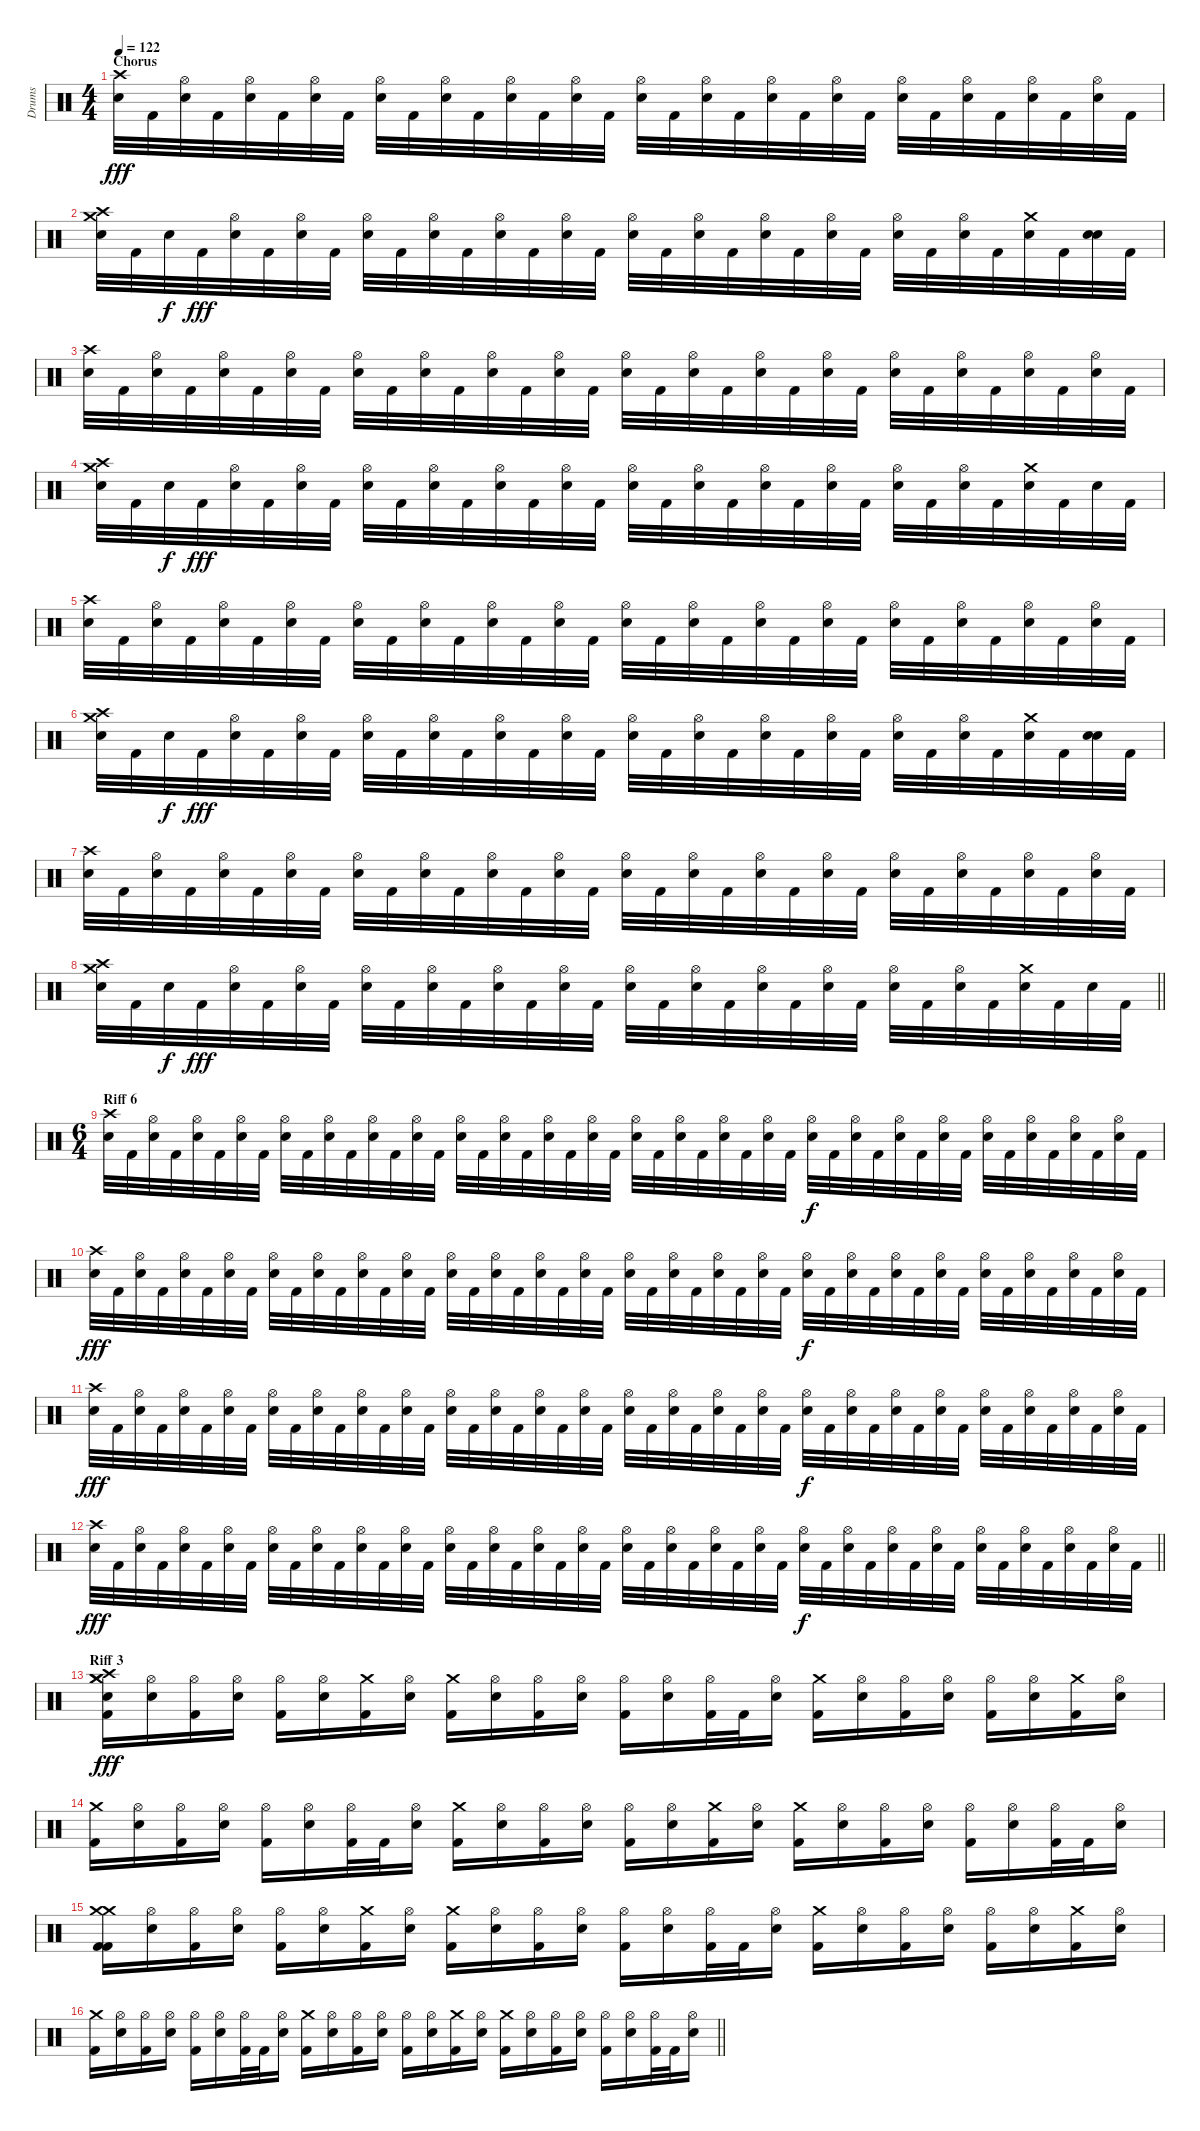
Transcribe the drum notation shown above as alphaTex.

\track ("Drums" "Drums") {instrument percussion}
\staff {score}
\articulation defaults
\ts (4 4)
\section ("" "Chorus")
\tempo 122
\clef neutral
\ks c
("Snare (hit) 2" "Crash high (hit)").32{dy fff} "Kick (hit) 2".32 ("Snare (hit) 2" "Hi-Hat (open)").32 "Kick (hit) 2".32 ("Hi-Hat (open)" "Snare (hit) 2").32 "Kick (hit) 2".32 ("Snare (hit) 2" "Hi-Hat (open)").32 "Kick (hit) 2".32 ("Hi-Hat (open)" "Snare (hit) 2").32 "Kick (hit) 2".32 ("Snare (hit) 2" "Hi-Hat (open)").32 "Kick (hit) 2".32 ("Snare (hit) 2" "Hi-Hat (open)").32 "Kick (hit) 2".32 ("Hi-Hat (open)" "Snare (hit) 2").32 "Kick (hit) 2".32 ("Snare (hit) 2" "Hi-Hat (open)").32 "Kick (hit) 2".32 ("Hi-Hat (open)" "Snare (hit) 2").32 "Kick (hit) 2".32 ("Snare (hit) 2" "Hi-Hat (open)").32 "Kick (hit) 2".32 ("Snare (hit) 2" "Hi-Hat (open)").32 "Kick (hit) 2".32 ("Hi-Hat (open)" "Snare (hit) 2").32 "Kick (hit) 2".32 ("Snare (hit) 2" "Hi-Hat (open)").32 "Kick (hit) 2".32 ("Hi-Hat (open)" "Snare (hit) 2").32 "Kick (hit) 2".32 ("Snare (hit) 2" "Hi-Hat (open)").32 "Kick (hit) 2".32 |
("Snare (hit) 2" "Crash high (hit)" "Crash medium (hit)").32 "Kick (hit) 2".32 "Snare (hit) 2".32{dy f} "Kick (hit) 2".32{dy fff} ("Snare (hit) 2" "Hi-Hat (open)").32 "Kick (hit) 2".32 ("Hi-Hat (open)" "Snare (hit) 2").32 "Kick (hit) 2".32 ("Snare (hit) 2" "Hi-Hat (open)").32 "Kick (hit) 2".32 ("Snare (hit) 2" "Hi-Hat (open)").32 "Kick (hit) 2".32 ("Hi-Hat (open)" "Snare (hit) 2").32 "Kick (hit) 2".32 ("Snare (hit) 2" "Hi-Hat (open)").32 "Kick (hit) 2".32 ("Hi-Hat (open)" "Snare (hit) 2").32 "Kick (hit) 2".32 ("Snare (hit) 2" "Hi-Hat (open)").32 "Kick (hit) 2".32 ("Snare (hit) 2" "Hi-Hat (open)").32 "Kick (hit) 2".32 ("Hi-Hat (open)" "Snare (hit) 2").32 "Kick (hit) 2".32 ("Snare (hit) 2" "Hi-Hat (open)").32 "Kick (hit) 2".32 ("Hi-Hat (open)" "Snare (hit) 2").32 "Kick (hit) 2".32 ("Snare (hit) 2" "Crash medium (hit)").32 "Kick (hit) 2".32 ("Snare (hit) 2" "Snare (hit) 2").32 "Kick (hit) 2".32 |
("Snare (hit) 2" "Crash high (hit)").32 "Kick (hit) 2".32 ("Snare (hit) 2" "Hi-Hat (open)").32 "Kick (hit) 2".32 ("Hi-Hat (open)" "Snare (hit) 2").32 "Kick (hit) 2".32 ("Snare (hit) 2" "Hi-Hat (open)").32 "Kick (hit) 2".32 ("Hi-Hat (open)" "Snare (hit) 2").32 "Kick (hit) 2".32 ("Snare (hit) 2" "Hi-Hat (open)").32 "Kick (hit) 2".32 ("Snare (hit) 2" "Hi-Hat (open)").32 "Kick (hit) 2".32 ("Hi-Hat (open)" "Snare (hit) 2").32 "Kick (hit) 2".32 ("Snare (hit) 2" "Hi-Hat (open)").32 "Kick (hit) 2".32 ("Hi-Hat (open)" "Snare (hit) 2").32 "Kick (hit) 2".32 ("Snare (hit) 2" "Hi-Hat (open)").32 "Kick (hit) 2".32 ("Snare (hit) 2" "Hi-Hat (open)").32 "Kick (hit) 2".32 ("Hi-Hat (open)" "Snare (hit) 2").32 "Kick (hit) 2".32 ("Snare (hit) 2" "Hi-Hat (open)").32 "Kick (hit) 2".32 ("Hi-Hat (open)" "Snare (hit) 2").32 "Kick (hit) 2".32 ("Snare (hit) 2" "Hi-Hat (open)").32 "Kick (hit) 2".32 |
("Snare (hit) 2" "Crash high (hit)" "Crash medium (hit)").32 "Kick (hit) 2".32 "Snare (hit) 2".32{dy f} "Kick (hit) 2".32{dy fff} ("Snare (hit) 2" "Hi-Hat (open)").32 "Kick (hit) 2".32 ("Hi-Hat (open)" "Snare (hit) 2").32 "Kick (hit) 2".32 ("Snare (hit) 2" "Hi-Hat (open)").32 "Kick (hit) 2".32 ("Snare (hit) 2" "Hi-Hat (open)").32 "Kick (hit) 2".32 ("Hi-Hat (open)" "Snare (hit) 2").32 "Kick (hit) 2".32 ("Snare (hit) 2" "Hi-Hat (open)").32 "Kick (hit) 2".32 ("Hi-Hat (open)" "Snare (hit) 2").32 "Kick (hit) 2".32 ("Snare (hit) 2" "Hi-Hat (open)").32 "Kick (hit) 2".32 ("Snare (hit) 2" "Hi-Hat (open)").32 "Kick (hit) 2".32 ("Hi-Hat (open)" "Snare (hit) 2").32 "Kick (hit) 2".32 ("Snare (hit) 2" "Hi-Hat (open)").32 "Kick (hit) 2".32 ("Hi-Hat (open)" "Snare (hit) 2").32 "Kick (hit) 2".32 ("Snare (hit) 2" "Crash medium (hit)").32 "Kick (hit) 2".32 "Snare (hit) 2".32 "Kick (hit) 2".32 |
("Snare (hit) 2" "Crash high (hit)").32 "Kick (hit) 2".32 ("Snare (hit) 2" "Hi-Hat (open)").32 "Kick (hit) 2".32 ("Hi-Hat (open)" "Snare (hit) 2").32 "Kick (hit) 2".32 ("Snare (hit) 2" "Hi-Hat (open)").32 "Kick (hit) 2".32 ("Hi-Hat (open)" "Snare (hit) 2").32 "Kick (hit) 2".32 ("Snare (hit) 2" "Hi-Hat (open)").32 "Kick (hit) 2".32 ("Snare (hit) 2" "Hi-Hat (open)").32 "Kick (hit) 2".32 ("Hi-Hat (open)" "Snare (hit) 2").32 "Kick (hit) 2".32 ("Snare (hit) 2" "Hi-Hat (open)").32 "Kick (hit) 2".32 ("Hi-Hat (open)" "Snare (hit) 2").32 "Kick (hit) 2".32 ("Snare (hit) 2" "Hi-Hat (open)").32 "Kick (hit) 2".32 ("Snare (hit) 2" "Hi-Hat (open)").32 "Kick (hit) 2".32 ("Hi-Hat (open)" "Snare (hit) 2").32 "Kick (hit) 2".32 ("Snare (hit) 2" "Hi-Hat (open)").32 "Kick (hit) 2".32 ("Hi-Hat (open)" "Snare (hit) 2").32 "Kick (hit) 2".32 ("Snare (hit) 2" "Hi-Hat (open)").32 "Kick (hit) 2".32 |
("Snare (hit) 2" "Crash high (hit)" "Crash medium (hit)").32 "Kick (hit) 2".32 "Snare (hit) 2".32{dy f} "Kick (hit) 2".32{dy fff} ("Snare (hit) 2" "Hi-Hat (open)").32 "Kick (hit) 2".32 ("Hi-Hat (open)" "Snare (hit) 2").32 "Kick (hit) 2".32 ("Snare (hit) 2" "Hi-Hat (open)").32 "Kick (hit) 2".32 ("Snare (hit) 2" "Hi-Hat (open)").32 "Kick (hit) 2".32 ("Hi-Hat (open)" "Snare (hit) 2").32 "Kick (hit) 2".32 ("Snare (hit) 2" "Hi-Hat (open)").32 "Kick (hit) 2".32 ("Hi-Hat (open)" "Snare (hit) 2").32 "Kick (hit) 2".32 ("Snare (hit) 2" "Hi-Hat (open)").32 "Kick (hit) 2".32 ("Snare (hit) 2" "Hi-Hat (open)").32 "Kick (hit) 2".32 ("Hi-Hat (open)" "Snare (hit) 2").32 "Kick (hit) 2".32 ("Snare (hit) 2" "Hi-Hat (open)").32 "Kick (hit) 2".32 ("Hi-Hat (open)" "Snare (hit) 2").32 "Kick (hit) 2".32 ("Snare (hit) 2" "Crash medium (hit)").32 "Kick (hit) 2".32 ("Snare (hit) 2" "Snare (hit) 2").32 "Kick (hit) 2".32 |
("Snare (hit) 2" "Crash high (hit)").32 "Kick (hit) 2".32 ("Snare (hit) 2" "Hi-Hat (open)").32 "Kick (hit) 2".32 ("Hi-Hat (open)" "Snare (hit) 2").32 "Kick (hit) 2".32 ("Snare (hit) 2" "Hi-Hat (open)").32 "Kick (hit) 2".32 ("Hi-Hat (open)" "Snare (hit) 2").32 "Kick (hit) 2".32 ("Snare (hit) 2" "Hi-Hat (open)").32 "Kick (hit) 2".32 ("Snare (hit) 2" "Hi-Hat (open)").32 "Kick (hit) 2".32 ("Hi-Hat (open)" "Snare (hit) 2").32 "Kick (hit) 2".32 ("Snare (hit) 2" "Hi-Hat (open)").32 "Kick (hit) 2".32 ("Hi-Hat (open)" "Snare (hit) 2").32 "Kick (hit) 2".32 ("Snare (hit) 2" "Hi-Hat (open)").32 "Kick (hit) 2".32 ("Snare (hit) 2" "Hi-Hat (open)").32 "Kick (hit) 2".32 ("Hi-Hat (open)" "Snare (hit) 2").32 "Kick (hit) 2".32 ("Snare (hit) 2" "Hi-Hat (open)").32 "Kick (hit) 2".32 ("Hi-Hat (open)" "Snare (hit) 2").32 "Kick (hit) 2".32 ("Snare (hit) 2" "Hi-Hat (open)").32 "Kick (hit) 2".32 |
\barLineRight lightlight
("Snare (hit) 2" "Crash high (hit)" "Crash medium (hit)").32 "Kick (hit) 2".32 "Snare (hit) 2".32{dy f} "Kick (hit) 2".32{dy fff} ("Snare (hit) 2" "Hi-Hat (open)").32 "Kick (hit) 2".32 ("Hi-Hat (open)" "Snare (hit) 2").32 "Kick (hit) 2".32 ("Snare (hit) 2" "Hi-Hat (open)").32 "Kick (hit) 2".32 ("Snare (hit) 2" "Hi-Hat (open)").32 "Kick (hit) 2".32 ("Hi-Hat (open)" "Snare (hit) 2").32 "Kick (hit) 2".32 ("Snare (hit) 2" "Hi-Hat (open)").32 "Kick (hit) 2".32 ("Hi-Hat (open)" "Snare (hit) 2").32 "Kick (hit) 2".32 ("Snare (hit) 2" "Hi-Hat (open)").32 "Kick (hit) 2".32 ("Snare (hit) 2" "Hi-Hat (open)").32 "Kick (hit) 2".32 ("Hi-Hat (open)" "Snare (hit) 2").32 "Kick (hit) 2".32 ("Snare (hit) 2" "Hi-Hat (open)").32 "Kick (hit) 2".32 ("Hi-Hat (open)" "Snare (hit) 2").32 "Kick (hit) 2".32 ("Snare (hit) 2" "Crash medium (hit)").32 "Kick (hit) 2".32 "Snare (hit) 2".32 "Kick (hit) 2".32 |
\ts (6 4)
\section ("" "Riff 6")
("Snare (hit) 2" "Crash high (hit)").32 "Kick (hit) 2".32 ("Snare (hit) 2" "Hi-Hat (open)").32 "Kick (hit) 2".32 ("Hi-Hat (open)" "Snare (hit) 2").32 "Kick (hit) 2".32 ("Snare (hit) 2" "Hi-Hat (open)").32 "Kick (hit) 2".32 ("Hi-Hat (open)" "Snare (hit) 2").32 "Kick (hit) 2".32 ("Snare (hit) 2" "Hi-Hat (open)").32 "Kick (hit) 2".32 ("Snare (hit) 2" "Hi-Hat (open)").32 "Kick (hit) 2".32 ("Hi-Hat (open)" "Snare (hit) 2").32 "Kick (hit) 2".32 ("Snare (hit) 2" "Hi-Hat (open)").32 "Kick (hit) 2".32 ("Hi-Hat (open)" "Snare (hit) 2").32 "Kick (hit) 2".32 ("Snare (hit) 2" "Hi-Hat (open)").32 "Kick (hit) 2".32 ("Snare (hit) 2" "Hi-Hat (open)").32 "Kick (hit) 2".32 ("Hi-Hat (open)" "Snare (hit) 2").32 "Kick (hit) 2".32 ("Snare (hit) 2" "Hi-Hat (open)").32 "Kick (hit) 2".32 ("Hi-Hat (open)" "Snare (hit) 2").32 "Kick (hit) 2".32 ("Snare (hit) 2" "Hi-Hat (open)").32 "Kick (hit) 2".32 ("Snare (hit) 2" "Hi-Hat (open)").32{dy f} "Kick (hit) 2".32 ("Snare (hit) 2" "Hi-Hat (open)").32 "Kick (hit) 2".32 ("Snare (hit) 2" "Hi-Hat (open)").32 "Kick (hit) 2".32 ("Snare (hit) 2" "Hi-Hat (open)").32 "Kick (hit) 2".32 ("Snare (hit) 2" "Hi-Hat (open)").32 "Kick (hit) 2".32 ("Snare (hit) 2" "Hi-Hat (open)").32 "Kick (hit) 2".32 ("Snare (hit) 2" "Hi-Hat (open)").32 "Kick (hit) 2".32 ("Snare (hit) 2" "Hi-Hat (open)").32 "Kick (hit) 2".32 |
("Snare (hit) 2" "Crash high (hit)").32{dy fff} "Kick (hit) 2".32 ("Snare (hit) 2" "Hi-Hat (open)").32 "Kick (hit) 2".32 ("Hi-Hat (open)" "Snare (hit) 2").32 "Kick (hit) 2".32 ("Snare (hit) 2" "Hi-Hat (open)").32 "Kick (hit) 2".32 ("Hi-Hat (open)" "Snare (hit) 2").32 "Kick (hit) 2".32 ("Snare (hit) 2" "Hi-Hat (open)").32 "Kick (hit) 2".32 ("Snare (hit) 2" "Hi-Hat (open)").32 "Kick (hit) 2".32 ("Hi-Hat (open)" "Snare (hit) 2").32 "Kick (hit) 2".32 ("Snare (hit) 2" "Hi-Hat (open)").32 "Kick (hit) 2".32 ("Hi-Hat (open)" "Snare (hit) 2").32 "Kick (hit) 2".32 ("Snare (hit) 2" "Hi-Hat (open)").32 "Kick (hit) 2".32 ("Snare (hit) 2" "Hi-Hat (open)").32 "Kick (hit) 2".32 ("Hi-Hat (open)" "Snare (hit) 2").32 "Kick (hit) 2".32 ("Snare (hit) 2" "Hi-Hat (open)").32 "Kick (hit) 2".32 ("Hi-Hat (open)" "Snare (hit) 2").32 "Kick (hit) 2".32 ("Snare (hit) 2" "Hi-Hat (open)").32 "Kick (hit) 2".32 ("Snare (hit) 2" "Hi-Hat (open)").32{dy f} "Kick (hit) 2".32 ("Snare (hit) 2" "Hi-Hat (open)").32 "Kick (hit) 2".32 ("Snare (hit) 2" "Hi-Hat (open)").32 "Kick (hit) 2".32 ("Snare (hit) 2" "Hi-Hat (open)").32 "Kick (hit) 2".32 ("Snare (hit) 2" "Hi-Hat (open)").32 "Kick (hit) 2".32 ("Snare (hit) 2" "Hi-Hat (open)").32 "Kick (hit) 2".32 ("Snare (hit) 2" "Hi-Hat (open)").32 "Kick (hit) 2".32 ("Snare (hit) 2" "Hi-Hat (open)").32 "Kick (hit) 2".32 |
("Snare (hit) 2" "Crash high (hit)").32{dy fff} "Kick (hit) 2".32 ("Snare (hit) 2" "Hi-Hat (open)").32 "Kick (hit) 2".32 ("Hi-Hat (open)" "Snare (hit) 2").32 "Kick (hit) 2".32 ("Snare (hit) 2" "Hi-Hat (open)").32 "Kick (hit) 2".32 ("Hi-Hat (open)" "Snare (hit) 2").32 "Kick (hit) 2".32 ("Snare (hit) 2" "Hi-Hat (open)").32 "Kick (hit) 2".32 ("Snare (hit) 2" "Hi-Hat (open)").32 "Kick (hit) 2".32 ("Hi-Hat (open)" "Snare (hit) 2").32 "Kick (hit) 2".32 ("Snare (hit) 2" "Hi-Hat (open)").32 "Kick (hit) 2".32 ("Hi-Hat (open)" "Snare (hit) 2").32 "Kick (hit) 2".32 ("Snare (hit) 2" "Hi-Hat (open)").32 "Kick (hit) 2".32 ("Snare (hit) 2" "Hi-Hat (open)").32 "Kick (hit) 2".32 ("Hi-Hat (open)" "Snare (hit) 2").32 "Kick (hit) 2".32 ("Snare (hit) 2" "Hi-Hat (open)").32 "Kick (hit) 2".32 ("Hi-Hat (open)" "Snare (hit) 2").32 "Kick (hit) 2".32 ("Snare (hit) 2" "Hi-Hat (open)").32 "Kick (hit) 2".32 ("Snare (hit) 2" "Hi-Hat (open)").32{dy f} "Kick (hit) 2".32 ("Snare (hit) 2" "Hi-Hat (open)").32 "Kick (hit) 2".32 ("Snare (hit) 2" "Hi-Hat (open)").32 "Kick (hit) 2".32 ("Snare (hit) 2" "Hi-Hat (open)").32 "Kick (hit) 2".32 ("Snare (hit) 2" "Hi-Hat (open)").32 "Kick (hit) 2".32 ("Snare (hit) 2" "Hi-Hat (open)").32 "Kick (hit) 2".32 ("Snare (hit) 2" "Hi-Hat (open)").32 "Kick (hit) 2".32 ("Snare (hit) 2" "Hi-Hat (open)").32 "Kick (hit) 2".32 |
\barLineRight lightlight
("Snare (hit) 2" "Crash high (hit)").32{dy fff} "Kick (hit) 2".32 ("Snare (hit) 2" "Hi-Hat (open)").32 "Kick (hit) 2".32 ("Hi-Hat (open)" "Snare (hit) 2").32 "Kick (hit) 2".32 ("Snare (hit) 2" "Hi-Hat (open)").32 "Kick (hit) 2".32 ("Hi-Hat (open)" "Snare (hit) 2").32 "Kick (hit) 2".32 ("Snare (hit) 2" "Hi-Hat (open)").32 "Kick (hit) 2".32 ("Snare (hit) 2" "Hi-Hat (open)").32 "Kick (hit) 2".32 ("Hi-Hat (open)" "Snare (hit) 2").32 "Kick (hit) 2".32 ("Snare (hit) 2" "Hi-Hat (open)").32 "Kick (hit) 2".32 ("Hi-Hat (open)" "Snare (hit) 2").32 "Kick (hit) 2".32 ("Snare (hit) 2" "Hi-Hat (open)").32 "Kick (hit) 2".32 ("Snare (hit) 2" "Hi-Hat (open)").32 "Kick (hit) 2".32 ("Hi-Hat (open)" "Snare (hit) 2").32 "Kick (hit) 2".32 ("Snare (hit) 2" "Hi-Hat (open)").32 "Kick (hit) 2".32 ("Hi-Hat (open)" "Snare (hit) 2").32 "Kick (hit) 2".32 ("Snare (hit) 2" "Hi-Hat (open)").32 "Kick (hit) 2".32 ("Snare (hit) 2" "Hi-Hat (open)").32{dy f} "Kick (hit) 2".32 ("Snare (hit) 2" "Hi-Hat (open)").32 "Kick (hit) 2".32 ("Snare (hit) 2" "Hi-Hat (open)").32 "Kick (hit) 2".32 ("Snare (hit) 2" "Hi-Hat (open)").32 "Kick (hit) 2".32 ("Snare (hit) 2" "Hi-Hat (open)").32 "Kick (hit) 2".32 ("Snare (hit) 2" "Hi-Hat (open)").32 "Kick (hit) 2".32 ("Snare (hit) 2" "Hi-Hat (open)").32 "Kick (hit) 2".32 ("Snare (hit) 2" "Hi-Hat (open)").32 "Kick (hit) 2".32 |
\section ("" "Riff 3")
("Snare (hit) 2" "Crash high (hit)" "Crash medium (hit)" "Kick (hit) 2" "Crash medium (hit)").16{dy fff} ("Snare (hit) 2" "Hi-Hat (open)").16 ("Kick (hit) 2" "Hi-Hat (open)").16 ("Snare (hit) 2" "Hi-Hat (open)").16 ("Kick (hit) 2" "Hi-Hat (open)").16 ("Snare (hit) 2" "Hi-Hat (open)").16 ("Kick (hit) 2" "Crash medium (hit)").16 ("Snare (hit) 2" "Hi-Hat (open)").16 ("Kick (hit) 2" "Crash medium (hit)").16 ("Snare (hit) 2" "Hi-Hat (open)").16 ("Kick (hit) 2" "Hi-Hat (open)").16 ("Snare (hit) 2" "Hi-Hat (open)").16 ("Kick (hit) 2" "Hi-Hat (open)").16 ("Snare (hit) 2" "Hi-Hat (open)").16 ("Kick (hit) 2" "Hi-Hat (open)").32 "Kick (hit) 2".32 ("Snare (hit) 2" "Hi-Hat (open)").16 ("Kick (hit) 2" "Crash medium (hit)").16 ("Snare (hit) 2" "Hi-Hat (open)").16 ("Kick (hit) 2" "Hi-Hat (open)").16 ("Snare (hit) 2" "Hi-Hat (open)").16 ("Kick (hit) 2" "Hi-Hat (open)").16 ("Snare (hit) 2" "Hi-Hat (open)").16 ("Kick (hit) 2" "Crash medium (hit)").16 ("Snare (hit) 2" "Hi-Hat (open)").16 |
("Kick (hit) 2" "Crash medium (hit)").16 ("Snare (hit) 2" "Hi-Hat (open)").16 ("Kick (hit) 2" "Hi-Hat (open)").16 ("Snare (hit) 2" "Hi-Hat (open)").16 ("Kick (hit) 2" "Hi-Hat (open)").16 ("Snare (hit) 2" "Hi-Hat (open)").16 ("Kick (hit) 2" "Hi-Hat (open)").32 "Kick (hit) 2".32 ("Snare (hit) 2" "Hi-Hat (open)").16 ("Kick (hit) 2" "Crash medium (hit)").16 ("Snare (hit) 2" "Hi-Hat (open)").16 ("Kick (hit) 2" "Hi-Hat (open)").16 ("Snare (hit) 2" "Hi-Hat (open)").16 ("Kick (hit) 2" "Hi-Hat (open)").16 ("Snare (hit) 2" "Hi-Hat (open)").16 ("Kick (hit) 2" "Crash medium (hit)").16 ("Snare (hit) 2" "Hi-Hat (open)").16 ("Kick (hit) 2" "Crash medium (hit)").16 ("Snare (hit) 2" "Hi-Hat (open)").16 ("Kick (hit) 2" "Hi-Hat (open)").16 ("Snare (hit) 2" "Hi-Hat (open)").16 ("Kick (hit) 2" "Hi-Hat (open)").16 ("Snare (hit) 2" "Hi-Hat (open)").16 ("Kick (hit) 2" "Hi-Hat (open)").32 "Kick (hit) 2".32 ("Snare (hit) 2" "Hi-Hat (open)").16 |
("Kick (hit) 2" "Crash medium (hit)" "Kick (hit) 2" "Crash medium (hit)").16 ("Snare (hit) 2" "Hi-Hat (open)").16 ("Kick (hit) 2" "Hi-Hat (open)").16 ("Snare (hit) 2" "Hi-Hat (open)").16 ("Kick (hit) 2" "Hi-Hat (open)").16 ("Snare (hit) 2" "Hi-Hat (open)").16 ("Kick (hit) 2" "Crash medium (hit)").16 ("Snare (hit) 2" "Hi-Hat (open)").16 ("Kick (hit) 2" "Crash medium (hit)").16 ("Snare (hit) 2" "Hi-Hat (open)").16 ("Kick (hit) 2" "Hi-Hat (open)").16 ("Snare (hit) 2" "Hi-Hat (open)").16 ("Kick (hit) 2" "Hi-Hat (open)").16 ("Snare (hit) 2" "Hi-Hat (open)").16 ("Kick (hit) 2" "Hi-Hat (open)").32 "Kick (hit) 2".32 ("Snare (hit) 2" "Hi-Hat (open)").16 ("Kick (hit) 2" "Crash medium (hit)").16 ("Snare (hit) 2" "Hi-Hat (open)").16 ("Kick (hit) 2" "Hi-Hat (open)").16 ("Snare (hit) 2" "Hi-Hat (open)").16 ("Kick (hit) 2" "Hi-Hat (open)").16 ("Snare (hit) 2" "Hi-Hat (open)").16 ("Kick (hit) 2" "Crash medium (hit)").16 ("Snare (hit) 2" "Hi-Hat (open)").16 |
\barLineRight lightlight
("Kick (hit) 2" "Crash medium (hit)").16 ("Snare (hit) 2" "Hi-Hat (open)").16 ("Kick (hit) 2" "Hi-Hat (open)").16 ("Snare (hit) 2" "Hi-Hat (open)").16 ("Kick (hit) 2" "Hi-Hat (open)").16 ("Snare (hit) 2" "Hi-Hat (open)").16 ("Kick (hit) 2" "Hi-Hat (open)").32 "Kick (hit) 2".32 ("Snare (hit) 2" "Hi-Hat (open)").16 ("Kick (hit) 2" "Crash medium (hit)").16 ("Snare (hit) 2" "Hi-Hat (open)").16 ("Kick (hit) 2" "Hi-Hat (open)").16 ("Snare (hit) 2" "Hi-Hat (open)").16 ("Kick (hit) 2" "Hi-Hat (open)").16 ("Snare (hit) 2" "Hi-Hat (open)").16 ("Kick (hit) 2" "Crash medium (hit)").16 ("Snare (hit) 2" "Hi-Hat (open)").16 ("Kick (hit) 2" "Crash medium (hit)").16 ("Snare (hit) 2" "Hi-Hat (open)").16 ("Kick (hit) 2" "Hi-Hat (open)").16 ("Snare (hit) 2" "Hi-Hat (open)").16 ("Kick (hit) 2" "Hi-Hat (open)").16 ("Snare (hit) 2" "Hi-Hat (open)").16 ("Kick (hit) 2" "Hi-Hat (open)").32 "Kick (hit) 2".32 ("Snare (hit) 2" "Hi-Hat (open)").16
